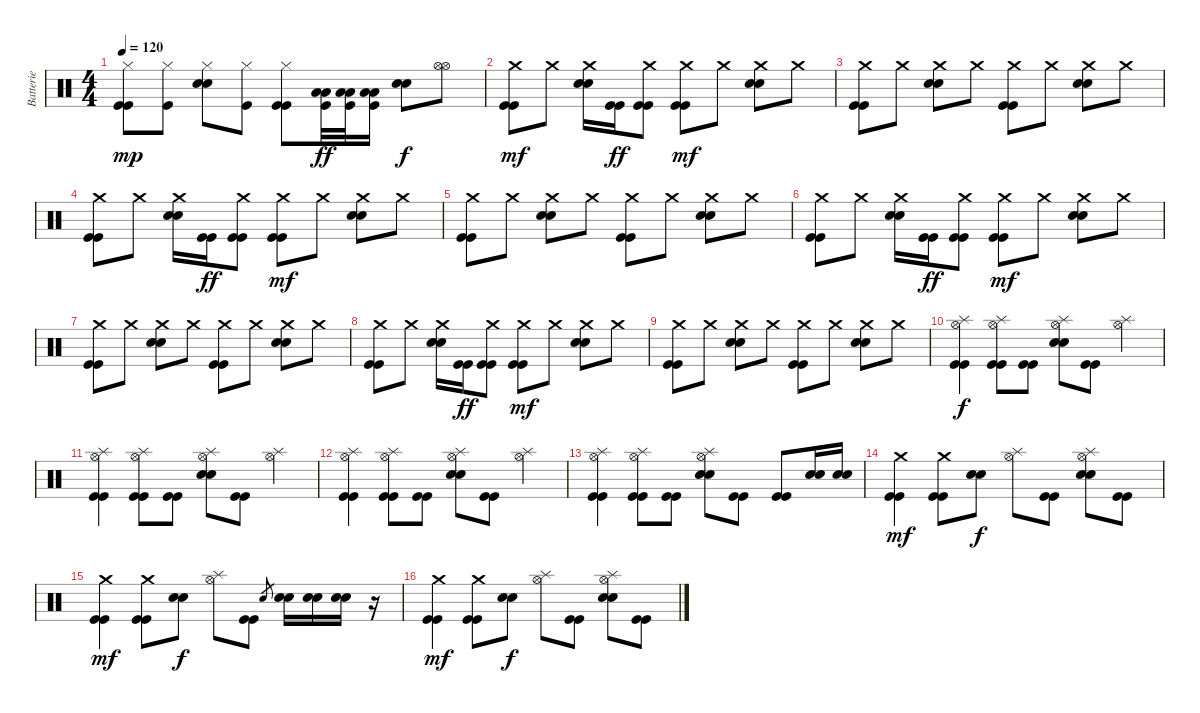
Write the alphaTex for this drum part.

\track ("Batterie" "Batterie") {instrument percussion}
\staff {score}
\articulation defaults
\ts (4 4)
\tempo 120
\clef neutral
\ks c
("Hi-Hat (closed)" "Kick (hit)" "Kick (hit)").8{dy mp} ("Hi-Hat (closed)" "Kick (hit)").8 ("Hi-Hat (closed)" "Electric Snare (hit)" "Electric Snare (hit)").8 ("Hi-Hat (closed)" "Kick (hit)").8 ("Hi-Hat (closed)" "Kick (hit)" "Kick (hit)").8 ("Low Tom (hit)" "Low Tom (hit)" "Kick (hit)").32{dy ff} ("Low Floor Tom (hit)" "Low Floor Tom (hit)" "Kick (hit)").32 ("Low Floor Tom (hit)" "Low Tom (hit)" "Kick (hit)").16 ("Electric Snare (hit)" "Electric Snare (hit)").8{dy f} ("Hi-Hat (open)" "Hi-Hat (open)").8 |
("Crash medium (hit)" "Kick (hit)" "Kick (hit)").8{dy mf} "Crash medium (hit)".8 ("Crash medium (hit)" "Electric Snare (hit)" "Electric Snare (hit)").16 ("Kick (hit)" "Kick (hit)").16{dy ff} ("Crash medium (hit)" "Kick (hit)" "Kick (hit)").8 ("Crash medium (hit)" "Kick (hit)" "Kick (hit)").8{dy mf} "Crash medium (hit)".8 ("Crash medium (hit)" "Electric Snare (hit)" "Electric Snare (hit)").8 "Crash medium (hit)".8 |
("Crash medium (hit)" "Kick (hit)" "Kick (hit)").8 "Crash medium (hit)".8 ("Crash medium (hit)" "Electric Snare (hit)" "Electric Snare (hit)").8 "Crash medium (hit)".8 ("Crash medium (hit)" "Kick (hit)" "Kick (hit)").8 "Crash medium (hit)".8 ("Crash medium (hit)" "Electric Snare (hit)" "Electric Snare (hit)").8 "Crash medium (hit)".8 |
("Crash medium (hit)" "Kick (hit)" "Kick (hit)").8 "Crash medium (hit)".8 ("Crash medium (hit)" "Electric Snare (hit)" "Electric Snare (hit)").16 ("Kick (hit)" "Kick (hit)").16{dy ff} ("Crash medium (hit)" "Kick (hit)" "Kick (hit)").8 ("Crash medium (hit)" "Kick (hit)" "Kick (hit)").8{dy mf} "Crash medium (hit)".8 ("Crash medium (hit)" "Electric Snare (hit)" "Electric Snare (hit)").8 "Crash medium (hit)".8 |
("Crash medium (hit)" "Kick (hit)" "Kick (hit)").8 "Crash medium (hit)".8 ("Crash medium (hit)" "Electric Snare (hit)" "Electric Snare (hit)").8 "Crash medium (hit)".8 ("Crash medium (hit)" "Kick (hit)" "Kick (hit)").8 "Crash medium (hit)".8 ("Crash medium (hit)" "Electric Snare (hit)" "Electric Snare (hit)").8 "Crash medium (hit)".8 |
("Crash medium (hit)" "Kick (hit)" "Kick (hit)").8 "Crash medium (hit)".8 ("Crash medium (hit)" "Electric Snare (hit)" "Electric Snare (hit)").16 ("Kick (hit)" "Kick (hit)").16{dy ff} ("Crash medium (hit)" "Kick (hit)" "Kick (hit)").8 ("Crash medium (hit)" "Kick (hit)" "Kick (hit)").8{dy mf} "Crash medium (hit)".8 ("Crash medium (hit)" "Electric Snare (hit)" "Electric Snare (hit)").8 "Crash medium (hit)".8 |
("Crash medium (hit)" "Kick (hit)" "Kick (hit)").8 "Crash medium (hit)".8 ("Crash medium (hit)" "Electric Snare (hit)" "Electric Snare (hit)").8 "Crash medium (hit)".8 ("Crash medium (hit)" "Kick (hit)" "Kick (hit)").8 "Crash medium (hit)".8 ("Crash medium (hit)" "Electric Snare (hit)" "Electric Snare (hit)").8 "Crash medium (hit)".8 |
("Crash medium (hit)" "Kick (hit)" "Kick (hit)").8 "Crash medium (hit)".8 ("Crash medium (hit)" "Electric Snare (hit)" "Electric Snare (hit)").16 ("Kick (hit)" "Kick (hit)").16{dy ff} ("Crash medium (hit)" "Kick (hit)" "Kick (hit)").8 ("Crash medium (hit)" "Kick (hit)" "Kick (hit)").8{dy mf} "Crash medium (hit)".8 ("Crash medium (hit)" "Electric Snare (hit)" "Electric Snare (hit)").8 "Crash medium (hit)".8 |
("Crash medium (hit)" "Kick (hit)" "Kick (hit)").8 "Crash medium (hit)".8 ("Crash medium (hit)" "Electric Snare (hit)" "Electric Snare (hit)").8 "Crash medium (hit)".8 ("Crash medium (hit)" "Kick (hit)" "Kick (hit)").8 "Crash medium (hit)".8 ("Crash medium (hit)" "Electric Snare (hit)" "Electric Snare (hit)").8 "Crash medium (hit)".8 |
("Hi-Hat (open)" "Splash (hit)" "Kick (hit)" "Kick (hit)").4{dy f} ("Hi-Hat (open)" "Splash (hit)" "Kick (hit)" "Kick (hit)").8 ("Kick (hit)" "Kick (hit)").8 ("Hi-Hat (open)" "Splash (hit)" "Electric Snare (hit)" "Electric Snare (hit)").8 ("Kick (hit)" "Kick (hit)").8 ("Hi-Hat (open)" "Splash (hit)").4 |
("Hi-Hat (open)" "Splash (hit)" "Kick (hit)" "Kick (hit)").4 ("Hi-Hat (open)" "Splash (hit)" "Kick (hit)" "Kick (hit)").8 ("Kick (hit)" "Kick (hit)").8 ("Hi-Hat (open)" "Splash (hit)" "Electric Snare (hit)" "Electric Snare (hit)").8 ("Kick (hit)" "Kick (hit)").8 ("Hi-Hat (open)" "Splash (hit)").4 |
("Hi-Hat (open)" "Splash (hit)" "Kick (hit)" "Kick (hit)").4 ("Hi-Hat (open)" "Splash (hit)" "Kick (hit)" "Kick (hit)").8 ("Kick (hit)" "Kick (hit)").8 ("Hi-Hat (open)" "Splash (hit)" "Electric Snare (hit)" "Electric Snare (hit)").8 ("Kick (hit)" "Kick (hit)").8 ("Hi-Hat (open)" "Splash (hit)").4 |
("Hi-Hat (open)" "Splash (hit)" "Kick (hit)" "Kick (hit)").4 ("Hi-Hat (open)" "Splash (hit)" "Kick (hit)" "Kick (hit)").8 ("Kick (hit)" "Kick (hit)").8 ("Hi-Hat (open)" "Splash (hit)" "Electric Snare (hit)" "Electric Snare (hit)").8 ("Kick (hit)" "Kick (hit)").8 ("Kick (hit)" "Kick (hit)").8 ("Electric Snare (hit)" "Electric Snare (hit)").16 ("Electric Snare (hit)" "Electric Snare (hit)").16 |
("Crash medium (hit)" "Kick (hit)" "Kick (hit)").4{dy mf} ("Crash medium (hit)" "Kick (hit)" "Kick (hit)").8 ("Electric Snare (hit)" "Electric Snare (hit)").8{dy f} ("Hi-Hat (open)" "Splash (hit)").8 ("Kick (hit)" "Kick (hit)").8 ("Hi-Hat (open)" "Splash (hit)" "Electric Snare (hit)" "Electric Snare (hit)").8 ("Kick (hit)" "Kick (hit)").8 |
("Crash medium (hit)" "Kick (hit)" "Kick (hit)").4{dy mf} ("Crash medium (hit)" "Kick (hit)" "Kick (hit)").8 ("Electric Snare (hit)" "Electric Snare (hit)").8{dy f} ("Hi-Hat (open)" "Splash (hit)").8 ("Kick (hit)" "Kick (hit)").8 "Electric Snare (hit)".8{gr} ("Electric Snare (hit)" "Electric Snare (hit)").16 ("Electric Snare (hit)" "Electric Snare (hit)").16 ("Electric Snare (hit)" "Electric Snare (hit)").16 r.16 |
("Crash medium (hit)" "Kick (hit)" "Kick (hit)").4{dy mf} ("Crash medium (hit)" "Kick (hit)" "Kick (hit)").8 ("Electric Snare (hit)" "Electric Snare (hit)").8{dy f} ("Hi-Hat (open)" "Splash (hit)").8 ("Kick (hit)" "Kick (hit)").8 ("Hi-Hat (open)" "Splash (hit)" "Electric Snare (hit)" "Electric Snare (hit)").8 ("Kick (hit)" "Kick (hit)").8
